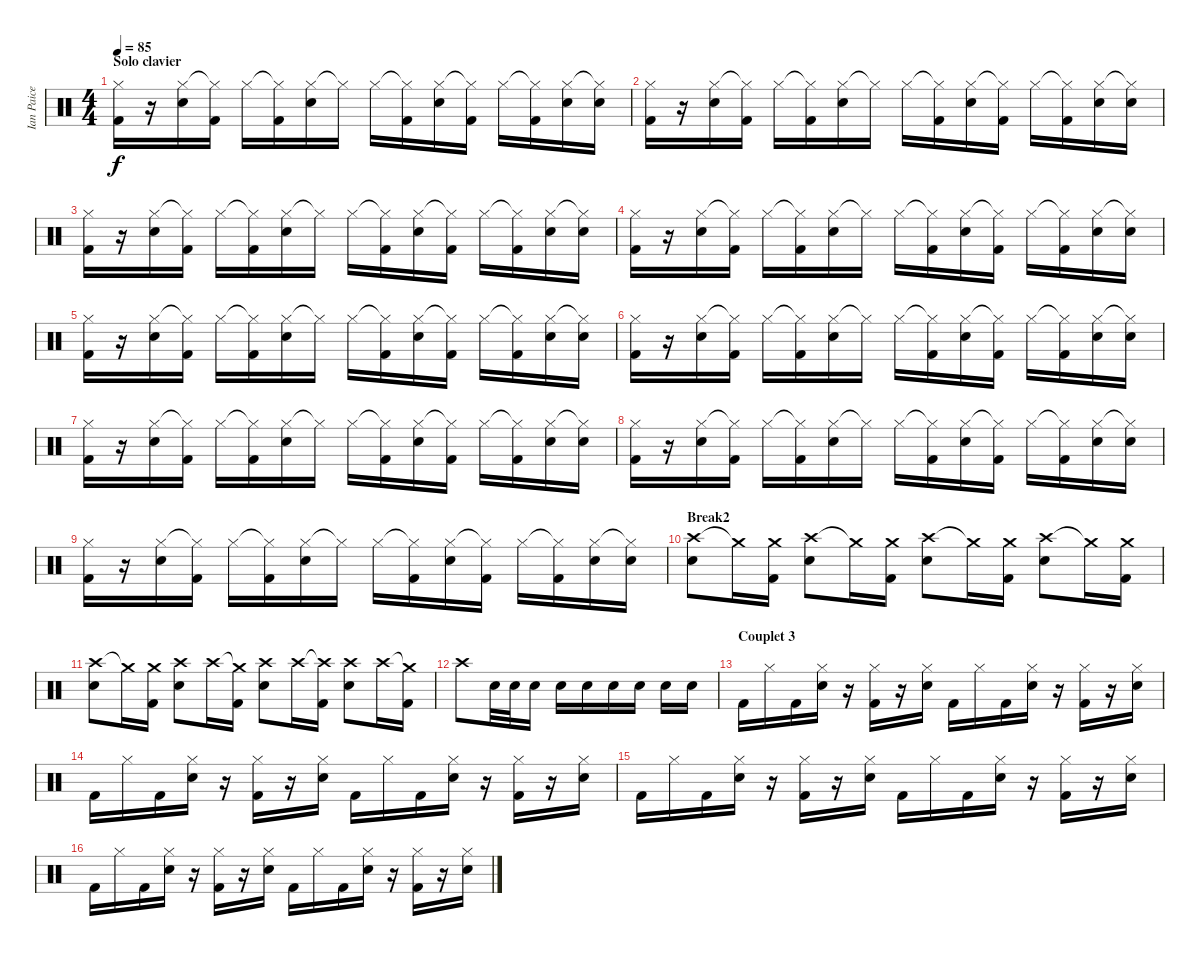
\track ("Ian Paice" "Ian Paice") {instrument percussion}
\staff {score}
\articulation defaults
\ts (4 4)
\section ("" "Solo clavier")
\tempo 85
\clef neutral
\ks c
("Hi-Hat (closed)" "Kick (hit) 2").16{dy f} r.16 ("Hi-Hat (closed)" "Snare (hit) 2").16 ("Hi-Hat (closed)"{t} "Kick (hit) 2").16 "Hi-Hat (closed)".16 ("Hi-Hat (closed)"{t} "Kick (hit) 2").16 ("Hi-Hat (closed)" "Snare (hit) 2").16 "Hi-Hat (closed)"{t}.16 "Hi-Hat (closed)".16 ("Hi-Hat (closed)"{t} "Kick (hit) 2").16 ("Hi-Hat (closed)" "Snare (hit) 2").16 ("Hi-Hat (closed)"{t} "Kick (hit) 2").16 "Hi-Hat (closed)".16 ("Hi-Hat (closed)"{t} "Kick (hit) 2").16 ("Hi-Hat (closed)" "Snare (hit) 2").16 ("Hi-Hat (closed)"{t} "Snare (hit) 2").16 |
("Hi-Hat (closed)" "Kick (hit) 2").16 r.16 ("Hi-Hat (closed)" "Snare (hit) 2").16 ("Hi-Hat (closed)"{t} "Kick (hit) 2").16 "Hi-Hat (closed)".16 ("Hi-Hat (closed)"{t} "Kick (hit) 2").16 ("Hi-Hat (closed)" "Snare (hit) 2").16 "Hi-Hat (closed)"{t}.16 "Hi-Hat (closed)".16 ("Hi-Hat (closed)"{t} "Kick (hit) 2").16 ("Hi-Hat (closed)" "Snare (hit) 2").16 ("Hi-Hat (closed)"{t} "Kick (hit) 2").16 "Hi-Hat (closed)".16 ("Hi-Hat (closed)"{t} "Kick (hit) 2").16 ("Hi-Hat (closed)" "Snare (hit) 2").16 ("Hi-Hat (closed)"{t} "Snare (hit) 2").16 |
("Hi-Hat (closed)" "Kick (hit) 2").16 r.16 ("Hi-Hat (closed)" "Snare (hit) 2").16 ("Hi-Hat (closed)"{t} "Kick (hit) 2").16 "Hi-Hat (closed)".16 ("Hi-Hat (closed)"{t} "Kick (hit) 2").16 ("Hi-Hat (closed)" "Snare (hit) 2").16 "Hi-Hat (closed)"{t}.16 "Hi-Hat (closed)".16 ("Hi-Hat (closed)"{t} "Kick (hit) 2").16 ("Hi-Hat (closed)" "Snare (hit) 2").16 ("Hi-Hat (closed)"{t} "Kick (hit) 2").16 "Hi-Hat (closed)".16 ("Hi-Hat (closed)"{t} "Kick (hit) 2").16 ("Hi-Hat (closed)" "Snare (hit) 2").16 ("Hi-Hat (closed)"{t} "Snare (hit) 2").16 |
("Hi-Hat (closed)" "Kick (hit) 2").16 r.16 ("Hi-Hat (closed)" "Snare (hit) 2").16 ("Hi-Hat (closed)"{t} "Kick (hit) 2").16 "Hi-Hat (closed)".16 ("Hi-Hat (closed)"{t} "Kick (hit) 2").16 ("Hi-Hat (closed)" "Snare (hit) 2").16 "Hi-Hat (closed)"{t}.16 "Hi-Hat (closed)".16 ("Hi-Hat (closed)"{t} "Kick (hit) 2").16 ("Hi-Hat (closed)" "Snare (hit) 2").16 ("Hi-Hat (closed)"{t} "Kick (hit) 2").16 "Hi-Hat (closed)".16 ("Hi-Hat (closed)"{t} "Kick (hit) 2").16 ("Hi-Hat (closed)" "Snare (hit) 2").16 ("Hi-Hat (closed)"{t} "Snare (hit) 2").16 |
("Hi-Hat (closed)" "Kick (hit) 2").16 r.16 ("Hi-Hat (closed)" "Snare (hit) 2").16 ("Hi-Hat (closed)"{t} "Kick (hit) 2").16 "Hi-Hat (closed)".16 ("Hi-Hat (closed)"{t} "Kick (hit) 2").16 ("Hi-Hat (closed)" "Snare (hit) 2").16 "Hi-Hat (closed)"{t}.16 "Hi-Hat (closed)".16 ("Hi-Hat (closed)"{t} "Kick (hit) 2").16 ("Hi-Hat (closed)" "Snare (hit) 2").16 ("Hi-Hat (closed)"{t} "Kick (hit) 2").16 "Hi-Hat (closed)".16 ("Hi-Hat (closed)"{t} "Kick (hit) 2").16 ("Hi-Hat (closed)" "Snare (hit) 2").16 ("Hi-Hat (closed)"{t} "Snare (hit) 2").16 |
("Hi-Hat (closed)" "Kick (hit) 2").16 r.16 ("Hi-Hat (closed)" "Snare (hit) 2").16 ("Hi-Hat (closed)"{t} "Kick (hit) 2").16 "Hi-Hat (closed)".16 ("Hi-Hat (closed)"{t} "Kick (hit) 2").16 ("Hi-Hat (closed)" "Snare (hit) 2").16 "Hi-Hat (closed)"{t}.16 "Hi-Hat (closed)".16 ("Hi-Hat (closed)"{t} "Kick (hit) 2").16 ("Hi-Hat (closed)" "Snare (hit) 2").16 ("Hi-Hat (closed)"{t} "Kick (hit) 2").16 "Hi-Hat (closed)".16 ("Hi-Hat (closed)"{t} "Kick (hit) 2").16 ("Hi-Hat (closed)" "Snare (hit) 2").16 ("Hi-Hat (closed)"{t} "Snare (hit) 2").16 |
("Hi-Hat (closed)" "Kick (hit) 2").16 r.16 ("Hi-Hat (closed)" "Snare (hit) 2").16 ("Hi-Hat (closed)"{t} "Kick (hit) 2").16 "Hi-Hat (closed)".16 ("Hi-Hat (closed)"{t} "Kick (hit) 2").16 ("Hi-Hat (closed)" "Snare (hit) 2").16 "Hi-Hat (closed)"{t}.16 "Hi-Hat (closed)".16 ("Hi-Hat (closed)"{t} "Kick (hit) 2").16 ("Hi-Hat (closed)" "Snare (hit) 2").16 ("Hi-Hat (closed)"{t} "Kick (hit) 2").16 "Hi-Hat (closed)".16 ("Hi-Hat (closed)"{t} "Kick (hit) 2").16 ("Hi-Hat (closed)" "Snare (hit) 2").16 ("Hi-Hat (closed)"{t} "Snare (hit) 2").16 |
("Hi-Hat (closed)" "Kick (hit) 2").16 r.16 ("Hi-Hat (closed)" "Snare (hit) 2").16 ("Hi-Hat (closed)"{t} "Kick (hit) 2").16 "Hi-Hat (closed)".16 ("Hi-Hat (closed)"{t} "Kick (hit) 2").16 ("Hi-Hat (closed)" "Snare (hit) 2").16 "Hi-Hat (closed)"{t}.16 "Hi-Hat (closed)".16 ("Hi-Hat (closed)"{t} "Kick (hit) 2").16 ("Hi-Hat (closed)" "Snare (hit) 2").16 ("Hi-Hat (closed)"{t} "Kick (hit) 2").16 "Hi-Hat (closed)".16 ("Hi-Hat (closed)"{t} "Kick (hit) 2").16 ("Hi-Hat (closed)" "Snare (hit) 2").16 ("Hi-Hat (closed)"{t} "Snare (hit) 2").16 |
("Hi-Hat (closed)" "Kick (hit) 2").16 r.16 ("Hi-Hat (closed)" "Snare (hit) 2").16 ("Hi-Hat (closed)"{t} "Kick (hit) 2").16 "Hi-Hat (closed)".16 ("Hi-Hat (closed)"{t} "Kick (hit) 2").16 ("Hi-Hat (closed)" "Snare (hit) 2").16 "Hi-Hat (closed)"{t}.16 "Hi-Hat (closed)".16 ("Hi-Hat (closed)"{t} "Kick (hit) 2").16 ("Hi-Hat (closed)" "Snare (hit) 2").16 ("Hi-Hat (closed)"{t} "Kick (hit) 2").16 "Hi-Hat (closed)".16 ("Hi-Hat (closed)"{t} "Kick (hit) 2").16 ("Hi-Hat (closed)" "Snare (hit) 2").16 ("Hi-Hat (closed)"{t} "Snare (hit) 2").16 |
\section ("" "Break2")
("Crash high (hit)" "Snare (hit) 2").8 "Crash medium (hit)"{t}.16 ("Crash medium (hit)" "Kick (hit) 2").16 ("Crash high (hit)" "Snare (hit) 2").8 "Crash medium (hit)"{t}.16 ("Crash medium (hit)" "Kick (hit) 2").16 ("Crash high (hit)" "Snare (hit) 2").8 "Crash medium (hit)"{t}.16 ("Crash medium (hit)" "Kick (hit) 2").16 ("Crash high (hit)" "Snare (hit) 2").8 "Crash medium (hit)"{t}.16 ("Crash medium (hit)" "Kick (hit) 2").16 |
("Crash high (hit)" "Snare (hit) 2").8 "Crash medium (hit)"{t}.16 ("Crash medium (hit)" "Kick (hit) 2").16 ("Crash high (hit)" "Snare (hit) 2").8 "Crash high (hit)".16 ("Crash medium (hit)"{t} "Kick (hit) 2").16 ("Crash high (hit)" "Snare (hit) 2").8 "Crash high (hit)".16 ("Crash high (hit)"{t} "Kick (hit) 2").16 ("Crash high (hit)" "Snare (hit) 2").8 "Crash high (hit)".16 ("Crash medium (hit)"{t} "Kick (hit) 2").16 |
"Crash high (hit)".8 "Snare (hit) 2".32 "Snare (hit) 2".32 "Snare (hit) 2".16 "Snare (hit) 2".16 "Snare (hit) 2".16 "Snare (hit) 2".16 "Snare (hit) 2".16 "Snare (hit) 2".16 "Snare (hit) 2".16 |
\section ("" "Couplet 3")
"Kick (hit) 2".16 "Hi-Hat (closed)".16 "Kick (hit) 2".16 ("Hi-Hat (closed)" "Snare (hit) 2").16 r.16 ("Hi-Hat (closed)" "Kick (hit) 2").16 r.16 ("Hi-Hat (closed)" "Snare (hit) 2").16 "Kick (hit) 2".16 "Hi-Hat (closed)".16 "Kick (hit) 2".16 ("Hi-Hat (closed)" "Snare (hit) 2").16 r.16 ("Hi-Hat (closed)" "Kick (hit) 2").16 r.16 ("Hi-Hat (closed)" "Snare (hit) 2").16 |
"Kick (hit) 2".16 "Hi-Hat (closed)".16 "Kick (hit) 2".16 ("Hi-Hat (closed)" "Snare (hit) 2").16 r.16 ("Hi-Hat (closed)" "Kick (hit) 2").16 r.16 ("Hi-Hat (closed)" "Snare (hit) 2").16 "Kick (hit) 2".16 "Hi-Hat (closed)".16 "Kick (hit) 2".16 ("Hi-Hat (closed)" "Snare (hit) 2").16 r.16 ("Hi-Hat (closed)" "Kick (hit) 2").16 r.16 ("Hi-Hat (closed)" "Snare (hit) 2").16 |
"Kick (hit) 2".16 "Hi-Hat (closed)".16 "Kick (hit) 2".16 ("Hi-Hat (closed)" "Snare (hit) 2").16 r.16 ("Hi-Hat (closed)" "Kick (hit) 2").16 r.16 ("Hi-Hat (closed)" "Snare (hit) 2").16 "Kick (hit) 2".16 "Hi-Hat (closed)".16 "Kick (hit) 2".16 ("Hi-Hat (closed)" "Snare (hit) 2").16 r.16 ("Hi-Hat (closed)" "Kick (hit) 2").16 r.16 ("Hi-Hat (closed)" "Snare (hit) 2").16 |
"Kick (hit) 2".16 "Hi-Hat (closed)".16 "Kick (hit) 2".16 ("Hi-Hat (closed)" "Snare (hit) 2").16 r.16 ("Hi-Hat (closed)" "Kick (hit) 2").16 r.16 ("Hi-Hat (closed)" "Snare (hit) 2").16 "Kick (hit) 2".16 "Hi-Hat (closed)".16 "Kick (hit) 2".16 ("Hi-Hat (closed)" "Snare (hit) 2").16 r.16 ("Hi-Hat (closed)" "Kick (hit) 2").16 r.16 ("Hi-Hat (closed)" "Snare (hit) 2").16
